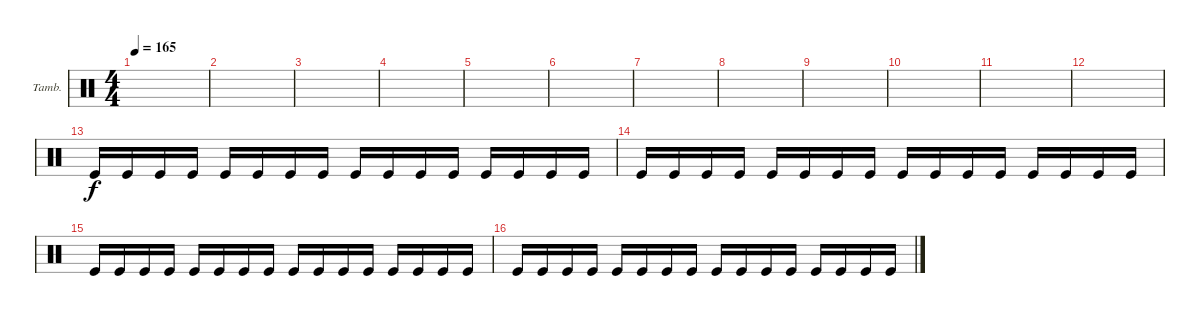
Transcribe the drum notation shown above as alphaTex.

\defaultSystemsLayout 4
\bracketExtendMode groupsimilarinstruments
\firstSystemTrackNameOrientation horizontal
\otherSystemsTrackNameOrientation horizontal
\track ("Tambourine" "Tamb.") {instrument percussion}
\staff {score}
\articulation defaults
\ts (4 4)
\tempo 165
\clef neutral
\ks c
|
|
|
|
|
|
|
|
|
|
|
|
"Kick (hit)".16 "Kick (hit)".16 "Kick (hit)".16 "Kick (hit)".16 "Kick (hit)".16 "Kick (hit)".16 "Kick (hit)".16 "Kick (hit)".16 "Kick (hit)".16 "Kick (hit)".16 "Kick (hit)".16 "Kick (hit)".16 "Kick (hit)".16 "Kick (hit)".16 "Kick (hit)".16 "Kick (hit)".16 |
"Kick (hit)".16 "Kick (hit)".16 "Kick (hit)".16 "Kick (hit)".16 "Kick (hit)".16 "Kick (hit)".16 "Kick (hit)".16 "Kick (hit)".16 "Kick (hit)".16 "Kick (hit)".16 "Kick (hit)".16 "Kick (hit)".16 "Kick (hit)".16 "Kick (hit)".16 "Kick (hit)".16 "Kick (hit)".16 |
"Kick (hit)".16 "Kick (hit)".16 "Kick (hit)".16 "Kick (hit)".16 "Kick (hit)".16 "Kick (hit)".16 "Kick (hit)".16 "Kick (hit)".16 "Kick (hit)".16 "Kick (hit)".16 "Kick (hit)".16 "Kick (hit)".16 "Kick (hit)".16 "Kick (hit)".16 "Kick (hit)".16 "Kick (hit)".16 |
"Kick (hit)".16 "Kick (hit)".16 "Kick (hit)".16 "Kick (hit)".16 "Kick (hit)".16 "Kick (hit)".16 "Kick (hit)".16 "Kick (hit)".16 "Kick (hit)".16 "Kick (hit)".16 "Kick (hit)".16 "Kick (hit)".16 "Kick (hit)".16 "Kick (hit)".16 "Kick (hit)".16 "Kick (hit)".16
